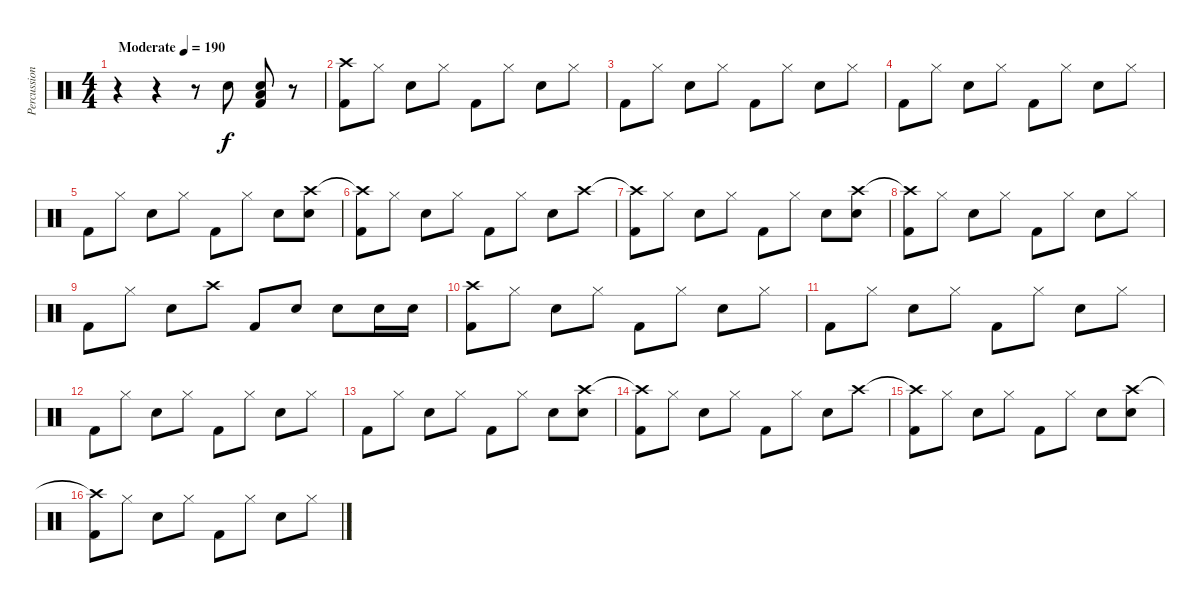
\track ("Percussion" "Percussion") {instrument percussion}
\staff {score}
\articulation defaults
\ts (4 4)
\tempo (190 "Moderate")
\clef neutral
\ks c
r.4{dy f} r.4 r.8 "Electric Snare (hit)".8 ("Low Tom (hit)" "Electric Snare (hit)" "Kick (hit) 2").8 r.8 |
("Crash high (hit)" "Kick (hit) 2").8 "Hi-Hat (closed)".8 "Electric Snare (hit)".8 "Hi-Hat (closed)".8 "Kick (hit) 2".8 "Hi-Hat (closed)".8 "Electric Snare (hit)".8 "Hi-Hat (closed)".8 |
"Kick (hit) 2".8 "Hi-Hat (closed)".8 "Electric Snare (hit)".8 "Hi-Hat (closed)".8 "Kick (hit) 2".8 "Hi-Hat (closed)".8 "Electric Snare (hit)".8 "Hi-Hat (closed)".8 |
"Kick (hit) 2".8 "Hi-Hat (closed)".8 "Electric Snare (hit)".8 "Hi-Hat (closed)".8 "Kick (hit) 2".8 "Hi-Hat (closed)".8 "Electric Snare (hit)".8 "Hi-Hat (closed)".8 |
"Kick (hit) 2".8 "Hi-Hat (closed)".8 "Electric Snare (hit)".8 "Hi-Hat (closed)".8 "Kick (hit) 2".8 "Hi-Hat (closed)".8 "Electric Snare (hit)".8 ("Crash high (hit)" "Electric Snare (hit)").8 |
("Crash high (hit)"{t} "Kick (hit) 2").8 "Hi-Hat (closed)".8 "Electric Snare (hit)".8 "Hi-Hat (closed)".8 "Kick (hit) 2".8 "Hi-Hat (closed)".8 "Electric Snare (hit)".8 "Crash high (hit)".8 |
("Crash high (hit)"{t} "Kick (hit) 2").8 "Hi-Hat (closed)".8 "Electric Snare (hit)".8 "Hi-Hat (closed)".8 "Kick (hit) 2".8 "Hi-Hat (closed)".8 "Electric Snare (hit)".8 ("Crash high (hit)" "Electric Snare (hit)").8 |
("Crash high (hit)"{t} "Kick (hit) 2").8 "Hi-Hat (closed)".8 "Electric Snare (hit)".8 "Hi-Hat (closed)".8 "Kick (hit) 2".8 "Hi-Hat (closed)".8 "Electric Snare (hit)".8 "Hi-Hat (closed)".8 |
"Kick (hit) 2".8 "Hi-Hat (closed)".8 "Electric Snare (hit)".8 "Crash high (hit)".8 "Kick (hit) 2".8 "Electric Snare (hit)".8 "Electric Snare (hit)".8 "Electric Snare (hit)".16 "Electric Snare (hit)".16 |
("Crash high (hit)" "Kick (hit) 2").8 "Hi-Hat (closed)".8 "Electric Snare (hit)".8 "Hi-Hat (closed)".8 "Kick (hit) 2".8 "Hi-Hat (closed)".8 "Electric Snare (hit)".8 "Hi-Hat (closed)".8 |
"Kick (hit) 2".8 "Hi-Hat (closed)".8 "Electric Snare (hit)".8 "Hi-Hat (closed)".8 "Kick (hit) 2".8 "Hi-Hat (closed)".8 "Electric Snare (hit)".8 "Hi-Hat (closed)".8 |
"Kick (hit) 2".8 "Hi-Hat (closed)".8 "Electric Snare (hit)".8 "Hi-Hat (closed)".8 "Kick (hit) 2".8 "Hi-Hat (closed)".8 "Electric Snare (hit)".8 "Hi-Hat (closed)".8 |
"Kick (hit) 2".8 "Hi-Hat (closed)".8 "Electric Snare (hit)".8 "Hi-Hat (closed)".8 "Kick (hit) 2".8 "Hi-Hat (closed)".8 "Electric Snare (hit)".8 ("Crash high (hit)" "Electric Snare (hit)").8 |
("Crash high (hit)"{t} "Kick (hit) 2").8 "Hi-Hat (closed)".8 "Electric Snare (hit)".8 "Hi-Hat (closed)".8 "Kick (hit) 2".8 "Hi-Hat (closed)".8 "Electric Snare (hit)".8 "Crash high (hit)".8 |
("Crash high (hit)"{t} "Kick (hit) 2").8 "Hi-Hat (closed)".8 "Electric Snare (hit)".8 "Hi-Hat (closed)".8 "Kick (hit) 2".8 "Hi-Hat (closed)".8 "Electric Snare (hit)".8 ("Crash high (hit)" "Electric Snare (hit)").8 |
("Crash high (hit)"{t} "Kick (hit) 2").8 "Hi-Hat (closed)".8 "Electric Snare (hit)".8 "Hi-Hat (closed)".8 "Kick (hit) 2".8 "Hi-Hat (closed)".8 "Electric Snare (hit)".8 "Hi-Hat (closed)".8
